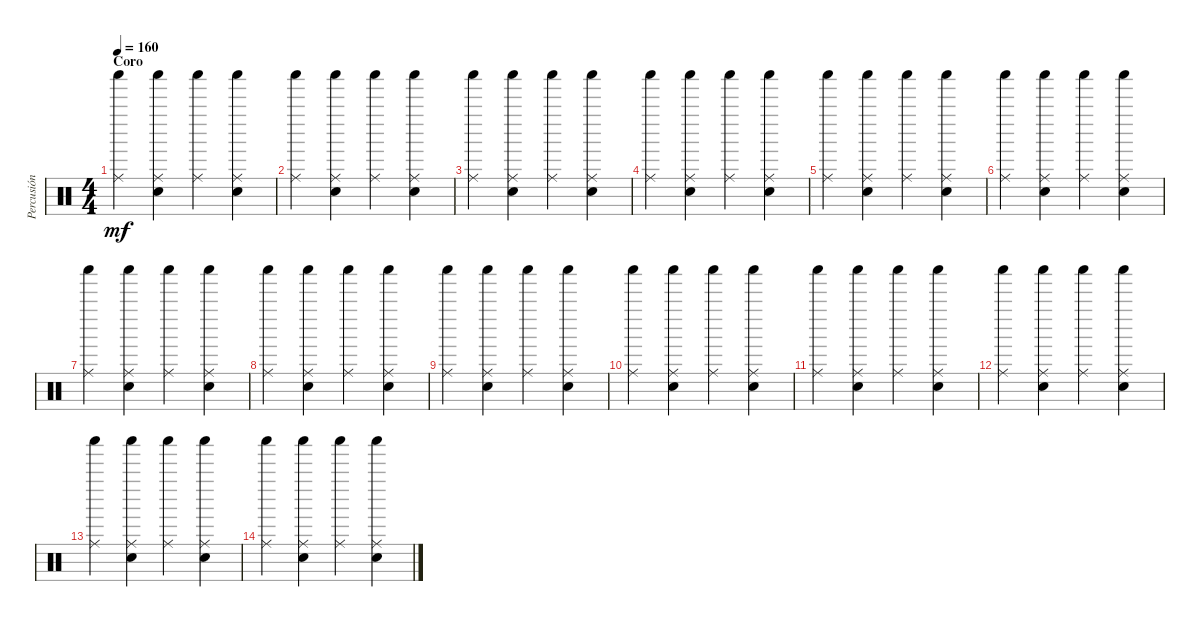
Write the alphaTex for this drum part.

\track ("Percusión" "Percusión") {instrument percussion}
\staff {score}
\articulation defaults
\ts (4 4)
\section ("" "Coro")
\tempo 160
\clef neutral
\ks c
("Shaker (hit)" "Ride (middle)").4{dy mf} ("Shaker (hit)" "Snare (hit) 2" "Ride (middle)").4 ("Shaker (hit)" "Ride (middle)").4 ("Shaker (hit)" "Snare (hit) 2" "Ride (middle)").4 |
("Shaker (hit)" "Ride (middle)").4 ("Shaker (hit)" "Snare (hit) 2" "Ride (middle)").4 ("Shaker (hit)" "Ride (middle)").4 ("Shaker (hit)" "Snare (hit) 2" "Ride (middle)").4 |
("Shaker (hit)" "Ride (middle)").4 ("Shaker (hit)" "Snare (hit) 2" "Ride (middle)").4 ("Shaker (hit)" "Ride (middle)").4 ("Shaker (hit)" "Snare (hit) 2" "Ride (middle)").4 |
("Shaker (hit)" "Ride (middle)").4 ("Shaker (hit)" "Snare (hit) 2" "Ride (middle)").4 ("Shaker (hit)" "Ride (middle)").4 ("Shaker (hit)" "Snare (hit) 2" "Ride (middle)").4 |
("Shaker (hit)" "Ride (middle)").4 ("Shaker (hit)" "Snare (hit) 2" "Ride (middle)").4 ("Shaker (hit)" "Ride (middle)").4 ("Shaker (hit)" "Snare (hit) 2" "Ride (middle)").4 |
("Shaker (hit)" "Ride (middle)").4 ("Shaker (hit)" "Snare (hit) 2" "Ride (middle)").4 ("Shaker (hit)" "Ride (middle)").4 ("Shaker (hit)" "Snare (hit) 2" "Ride (middle)").4 |
("Shaker (hit)" "Ride (middle)").4 ("Shaker (hit)" "Snare (hit) 2" "Ride (middle)").4 ("Shaker (hit)" "Ride (middle)").4 ("Shaker (hit)" "Snare (hit) 2" "Ride (middle)").4 |
("Shaker (hit)" "Ride (middle)").4 ("Shaker (hit)" "Snare (hit) 2" "Ride (middle)").4 ("Shaker (hit)" "Ride (middle)").4 ("Shaker (hit)" "Snare (hit) 2" "Ride (middle)").4 |
("Shaker (hit)" "Ride (middle)").4 ("Shaker (hit)" "Snare (hit) 2" "Ride (middle)").4 ("Shaker (hit)" "Ride (middle)").4 ("Shaker (hit)" "Snare (hit) 2" "Ride (middle)").4 |
("Shaker (hit)" "Ride (middle)").4 ("Shaker (hit)" "Snare (hit) 2" "Ride (middle)").4 ("Shaker (hit)" "Ride (middle)").4 ("Shaker (hit)" "Snare (hit) 2" "Ride (middle)").4 |
("Shaker (hit)" "Ride (middle)").4 ("Shaker (hit)" "Snare (hit) 2" "Ride (middle)").4 ("Shaker (hit)" "Ride (middle)").4 ("Shaker (hit)" "Snare (hit) 2" "Ride (middle)").4 |
("Shaker (hit)" "Ride (middle)").4 ("Shaker (hit)" "Snare (hit) 2" "Ride (middle)").4 ("Shaker (hit)" "Ride (middle)").4 ("Shaker (hit)" "Snare (hit) 2" "Ride (middle)").4 |
("Shaker (hit)" "Ride (middle)").4 ("Shaker (hit)" "Snare (hit) 2" "Ride (middle)").4 ("Shaker (hit)" "Ride (middle)").4 ("Shaker (hit)" "Snare (hit) 2" "Ride (middle)").4 |
("Shaker (hit)" "Ride (middle)").4 ("Shaker (hit)" "Snare (hit) 2" "Ride (middle)").4 ("Shaker (hit)" "Ride (middle)").4 ("Shaker (hit)" "Snare (hit) 2" "Ride (middle)").4
